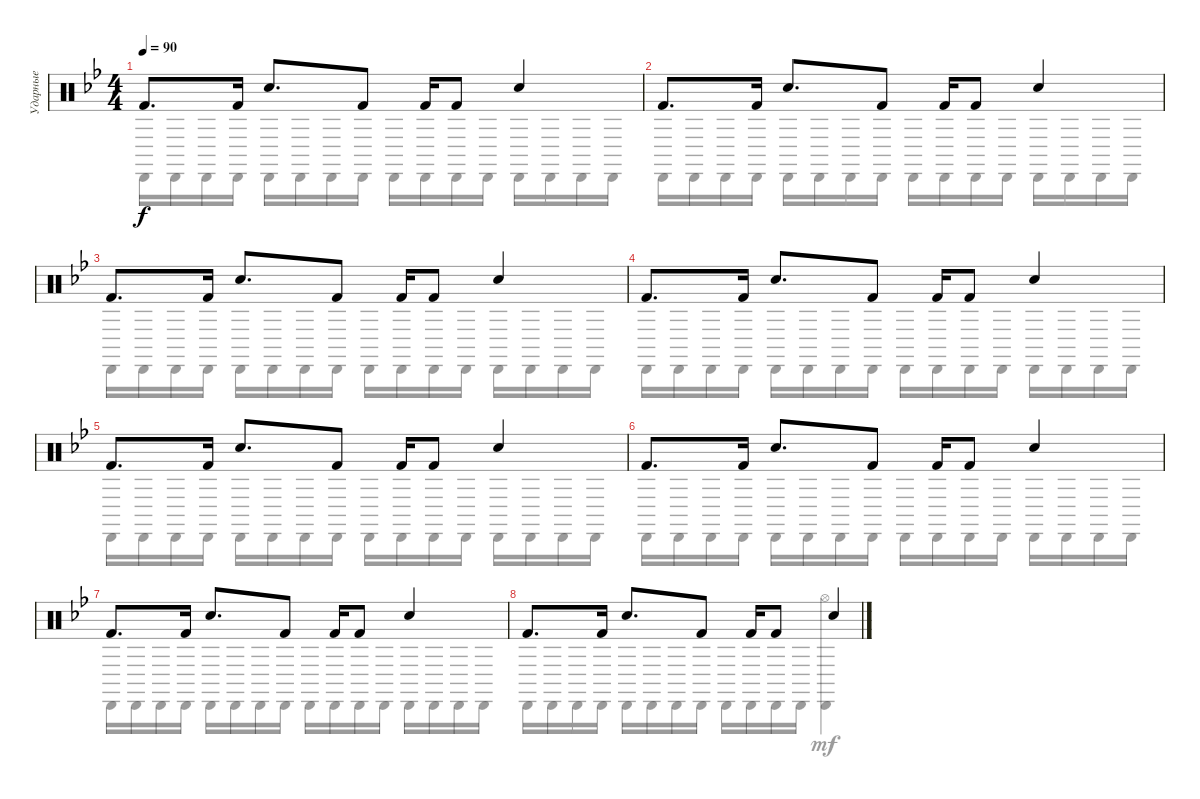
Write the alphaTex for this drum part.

\track ("Ударные" "Ударные") {instrument percussion}
\staff {score}
\articulation defaults
\voice
\ts (4 4)
\tempo 90
\clef neutral
\ks bb "Kick (hit) 2".8{d dy f} "Kick (hit) 2".16 "Hand Clap (hit)".8{d} "Kick (hit) 2".8 "Kick (hit) 2".16 "Kick (hit) 2".8 "Hand Clap (hit)".4
|
"Kick (hit) 2".8{d} "Kick (hit) 2".16 "Hand Clap (hit)".8{d} "Kick (hit) 2".8 "Kick (hit) 2".16 "Kick (hit) 2".8 "Hand Clap (hit)".4 |
"Kick (hit) 2".8{d} "Kick (hit) 2".16 "Hand Clap (hit)".8{d} "Kick (hit) 2".8 "Kick (hit) 2".16 "Kick (hit) 2".8 "Hand Clap (hit)".4 |
"Kick (hit) 2".8{d} "Kick (hit) 2".16 "Hand Clap (hit)".8{d} "Kick (hit) 2".8 "Kick (hit) 2".16 "Kick (hit) 2".8 "Hand Clap (hit)".4 |
"Kick (hit) 2".8{d} "Kick (hit) 2".16 "Hand Clap (hit)".8{d} "Kick (hit) 2".8 "Kick (hit) 2".16 "Kick (hit) 2".8 "Hand Clap (hit)".4 |
"Kick (hit) 2".8{d} "Kick (hit) 2".16 "Hand Clap (hit)".8{d} "Kick (hit) 2".8 "Kick (hit) 2".16 "Kick (hit) 2".8 "Hand Clap (hit)".4 |
"Kick (hit) 2".8{d} "Kick (hit) 2".16 "Hand Clap (hit)".8{d} "Kick (hit) 2".8 "Kick (hit) 2".16 "Kick (hit) 2".8 "Hand Clap (hit)".4 |
"Kick (hit) 2".8{d} "Kick (hit) 2".16 "Hand Clap (hit)".8{d} "Kick (hit) 2".8 "Kick (hit) 2".16 "Kick (hit) 2".8 "Hand Clap (hit)".4
\voice
\clef neutral
\ottava regular
\simile none
\ks bb "Cabasa (hit)".16{dy f} "Cabasa (hit)".16 "Cabasa (hit)".16 "Cabasa (hit)".16 "Cabasa (hit)".16 "Cabasa (hit)".16 "Cabasa (hit)".16 "Cabasa (hit)".16 "Cabasa (hit)".16 "Cabasa (hit)".16 "Cabasa (hit)".16 "Cabasa (hit)".16 "Cabasa (hit)".16 "Cabasa (hit)".16 "Cabasa (hit)".16 "Cabasa (hit)".16
|
"Cabasa (hit)".16 "Cabasa (hit)".16 "Cabasa (hit)".16 "Cabasa (hit)".16 "Cabasa (hit)".16 "Cabasa (hit)".16 "Cabasa (hit)".16 "Cabasa (hit)".16 "Cabasa (hit)".16 "Cabasa (hit)".16 "Cabasa (hit)".16 "Cabasa (hit)".16 "Cabasa (hit)".16 "Cabasa (hit)".16 "Cabasa (hit)".16 "Cabasa (hit)".16 |
"Cabasa (hit)".16 "Cabasa (hit)".16 "Cabasa (hit)".16 "Cabasa (hit)".16 "Cabasa (hit)".16 "Cabasa (hit)".16 "Cabasa (hit)".16 "Cabasa (hit)".16 "Cabasa (hit)".16 "Cabasa (hit)".16 "Cabasa (hit)".16 "Cabasa (hit)".16 "Cabasa (hit)".16 "Cabasa (hit)".16 "Cabasa (hit)".16 "Cabasa (hit)".16 |
"Cabasa (hit)".16 "Cabasa (hit)".16 "Cabasa (hit)".16 "Cabasa (hit)".16 "Cabasa (hit)".16 "Cabasa (hit)".16 "Cabasa (hit)".16 "Cabasa (hit)".16 "Cabasa (hit)".16 "Cabasa (hit)".16 "Cabasa (hit)".16 "Cabasa (hit)".16 "Cabasa (hit)".16 "Cabasa (hit)".16 "Cabasa (hit)".16 "Cabasa (hit)".16 |
"Cabasa (hit)".16 "Cabasa (hit)".16 "Cabasa (hit)".16 "Cabasa (hit)".16 "Cabasa (hit)".16 "Cabasa (hit)".16 "Cabasa (hit)".16 "Cabasa (hit)".16 "Cabasa (hit)".16 "Cabasa (hit)".16 "Cabasa (hit)".16 "Cabasa (hit)".16 "Cabasa (hit)".16 "Cabasa (hit)".16 "Cabasa (hit)".16 "Cabasa (hit)".16 |
"Cabasa (hit)".16 "Cabasa (hit)".16 "Cabasa (hit)".16 "Cabasa (hit)".16 "Cabasa (hit)".16 "Cabasa (hit)".16 "Cabasa (hit)".16 "Cabasa (hit)".16 "Cabasa (hit)".16 "Cabasa (hit)".16 "Cabasa (hit)".16 "Cabasa (hit)".16 "Cabasa (hit)".16 "Cabasa (hit)".16 "Cabasa (hit)".16 "Cabasa (hit)".16 |
"Cabasa (hit)".16 "Cabasa (hit)".16 "Cabasa (hit)".16 "Cabasa (hit)".16 "Cabasa (hit)".16 "Cabasa (hit)".16 "Cabasa (hit)".16 "Cabasa (hit)".16 "Cabasa (hit)".16 "Cabasa (hit)".16 "Cabasa (hit)".16 "Cabasa (hit)".16 "Cabasa (hit)".16 "Cabasa (hit)".16 "Cabasa (hit)".16 "Cabasa (hit)".16 |
"Cabasa (hit)".16 "Cabasa (hit)".16 "Cabasa (hit)".16 "Cabasa (hit)".16 "Cabasa (hit)".16 "Cabasa (hit)".16 "Cabasa (hit)".16 "Cabasa (hit)".16 "Cabasa (hit)".16 "Cabasa (hit)".16 "Cabasa (hit)".16 "Cabasa (hit)".16 ("Hi-Hat (open)" "Cabasa (hit)").4{dy mf}
